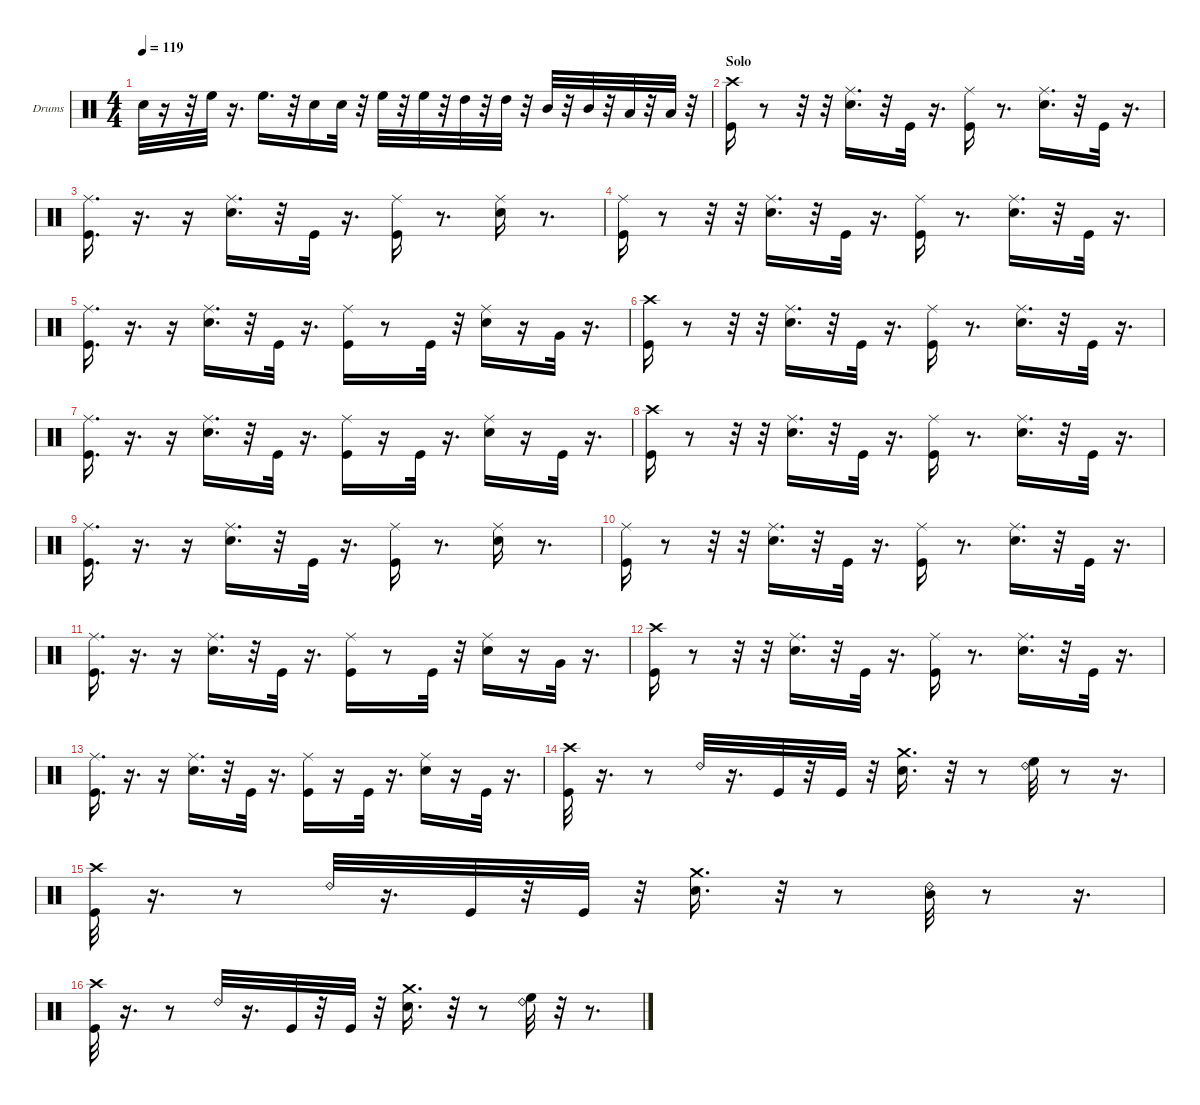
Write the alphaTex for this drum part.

\hideDynamics
\bracketExtendMode groupsimilarinstruments
\firstSystemTrackNameOrientation horizontal
\otherSystemsTrackNameOrientation horizontal
\track ("Drums" "Drums") {instrument percussion}
\staff {score}
\articulation defaults
\ts (4 4)
\tempo 119
\clef neutral
\ks c "Snare (hit) 2".32{dy mf}
r.16 r.32 "High Floor Tom (hit)".32 r.16{d} "High Floor Tom (hit)".16{d} r.32 "Snare (hit) 2".16 "Snare (hit) 2".32 r.32 "High Floor Tom (hit)".32 r.32 "High Floor Tom (hit)".32 r.32 "High Tom (hit)".32 r.32 "High Tom (hit)".32 r.32 "Mid Tom (hit)".32 r.32 "Mid Tom (hit)".32 r.32 "Low Tom (hit)".32 r.32 "Low Tom (hit)".32 r.32 |
\section ("" "Solo")
("Kick (hit)" "Crash high (hit)").16 r.8 r.32 r.32 ("Ride (middle)" "Snare (hit) 2").16{d} r.32 "Kick (hit)".32 r.16{d} ("Kick (hit)" "Ride (middle)").16 r.8{d} ("Snare (hit) 2" "Ride (middle)").16{d} r.32 "Kick (hit)".32 r.16{d} |
("Ride (middle)" "Kick (hit)").16{d} r.16{d} r.16 ("Ride (middle)" "Snare (hit) 2").16{d} r.32 "Kick (hit)".32 r.16{d} ("Ride (middle)" "Kick (hit)").16 r.8{d} ("Ride (middle)" "Snare (hit) 2").16 r.8{d} |
("Kick (hit)" "Ride (middle)").16 r.8 r.32 r.32 ("Ride (middle)" "Snare (hit) 2").16{d} r.32 "Kick (hit)".32 r.16{d} ("Kick (hit)" "Ride (middle)").16 r.8{d} ("Snare (hit) 2" "Ride (middle)").16{d} r.32 "Kick (hit)".32 r.16{d} |
("Ride (middle)" "Kick (hit)").16{d} r.16{d} r.16 ("Ride (middle)" "Snare (hit) 2").16{d} r.32 "Kick (hit)".32 r.16{d} ("Ride (middle)" "Kick (hit)").16 r.8 "Kick (hit)".32 r.32 ("Ride (middle)" "Snare (hit) 2").16 r.16 "Very Low Tom (hit)".32 r.16{d} |
("Kick (hit)" "Crash high (hit)").16 r.8 r.32 r.32 ("Ride (middle)" "Snare (hit) 2").16{d} r.32 "Kick (hit)".32 r.16{d} ("Kick (hit)" "Ride (middle)").16 r.8{d} ("Snare (hit) 2" "Ride (middle)").16{d} r.32 "Kick (hit)".32 r.16{d} |
("Ride (middle)" "Kick (hit)").16{d} r.16{d} r.16 ("Ride (middle)" "Snare (hit) 2").16{d} r.32 "Kick (hit)".32 r.16{d} ("Ride (middle)" "Kick (hit)").16 r.16 "Kick (hit)".32 r.16{d} ("Ride (middle)" "Snare (hit) 2").16 r.16 "Kick (hit)".32 r.16{d} |
("Kick (hit)" "Crash high (hit)").16 r.8 r.32 r.32 ("Ride (middle)" "Snare (hit) 2").16{d} r.32 "Kick (hit)".32 r.16{d} ("Kick (hit)" "Ride (middle)").16 r.8{d} ("Snare (hit) 2" "Ride (middle)").16{d} r.32 "Kick (hit)".32 r.16{d} |
("Ride (middle)" "Kick (hit)").16{d} r.16{d} r.16 ("Ride (middle)" "Snare (hit) 2").16{d} r.32 "Kick (hit)".32 r.16{d} ("Ride (middle)" "Kick (hit)").16 r.8{d} ("Ride (middle)" "Snare (hit) 2").16 r.8{d} |
("Kick (hit)" "Ride (middle)").16 r.8 r.32 r.32 ("Ride (middle)" "Snare (hit) 2").16{d} r.32 "Kick (hit)".32 r.16{d} ("Kick (hit)" "Ride (middle)").16 r.8{d} ("Snare (hit) 2" "Ride (middle)").16{d} r.32 "Kick (hit)".32 r.16{d} |
("Ride (middle)" "Kick (hit)").16{d} r.16{d} r.16 ("Ride (middle)" "Snare (hit) 2").16{d} r.32 "Kick (hit)".32 r.16{d} ("Ride (middle)" "Kick (hit)").16 r.8 "Kick (hit)".32 r.32 ("Ride (middle)" "Snare (hit) 2").16 r.16 "Very Low Tom (hit)".32 r.16{d} |
("Kick (hit)" "Crash high (hit)").16 r.8 r.32 r.32 ("Ride (middle)" "Snare (hit) 2").16{d} r.32 "Kick (hit)".32 r.16{d} ("Kick (hit)" "Ride (middle)").16 r.8{d} ("Snare (hit) 2" "Ride (middle)").16{d} r.32 "Kick (hit)".32 r.16{d} |
("Ride (middle)" "Kick (hit)").16{d} r.16{d} r.16 ("Ride (middle)" "Snare (hit) 2").16{d} r.32 "Kick (hit)".32 r.16{d} ("Ride (middle)" "Kick (hit)").16 r.16 "Kick (hit)".32 r.16{d} ("Ride (middle)" "Snare (hit) 2").16 r.16 "Kick (hit)".32 r.16{d} |
("Kick (hit)" "Crash high (hit)").32 r.16{d} r.8 "Ride (bell) 2".32 r.16{d} "Kick (hit)".32 r.32 "Kick (hit)".32 r.32 ("Crash medium (hit)" "Snare (hit) 2").16{d} r.32 r.8 ("High Floor Tom (hit)" "Ride (bell) 2").32 r.8 r.16{d} |
("Kick (hit)" "Crash high (hit)").32 r.16{d} r.8 "Ride (bell) 2".32 r.16{d} "Kick (hit)".32 r.32 "Kick (hit)".32 r.32 ("Crash medium (hit)" "Snare (hit) 2").16{d} r.32 r.8 ("Mid Tom (hit)" "Ride (bell) 2").32 r.8 r.16{d} |
("Kick (hit)" "Crash high (hit)").32 r.16{d} r.8 "Ride (bell) 2".32 r.16{d} "Kick (hit)".32 r.32 "Kick (hit)".32 r.32 ("Crash medium (hit)" "Snare (hit) 2").16{d} r.32 r.8 ("High Floor Tom (hit)" "Ride (bell) 2").32 r.32 r.8{d}
